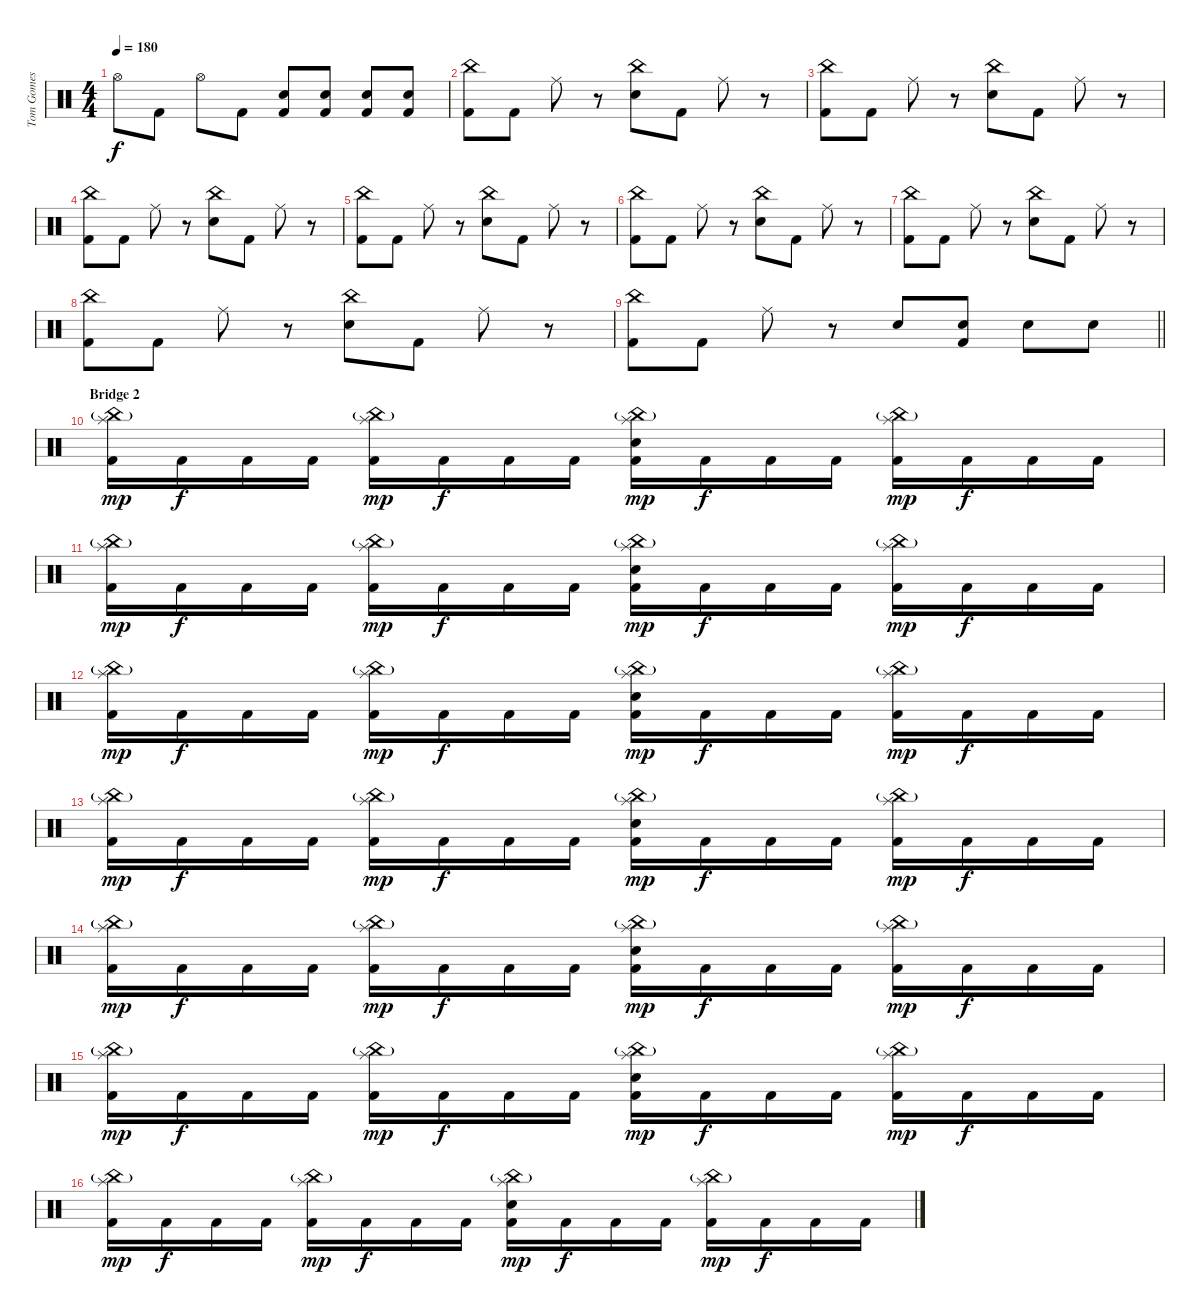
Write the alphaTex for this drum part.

\track ("Tom Gomes" "Tom Gomes") {instrument percussion}
\staff {score}
\articulation defaults
\ts (4 4)
\tempo 180
\clef neutral
\ks c "Hi-Hat (open)".8{dy f} "Kick (hit) 2".8 "Hi-Hat (open)".8 "Kick (hit) 2".8
("Snare (hit) 2" "Kick (hit) 2").8 ("Snare (hit) 2" "Kick (hit) 2").8 ("Snare (hit) 2" "Kick (hit) 2").8 ("Snare (hit) 2" "Kick (hit) 2").8 |
("China (hit)" "Kick (hit) 2").8 "Kick (hit) 2".8 "Ride (middle)".8 r.8 ("China (hit)" "Snare (hit) 2").8 "Kick (hit) 2".8 "Ride (middle)".8 r.8 |
("China (hit)" "Kick (hit) 2").8 "Kick (hit) 2".8 "Ride (middle)".8 r.8 ("China (hit)" "Snare (hit) 2").8 "Kick (hit) 2".8 "Ride (middle)".8 r.8 |
("China (hit)" "Kick (hit) 2").8 "Kick (hit) 2".8 "Ride (middle)".8 r.8 ("China (hit)" "Snare (hit) 2").8 "Kick (hit) 2".8 "Ride (middle)".8 r.8 |
("China (hit)" "Kick (hit) 2").8 "Kick (hit) 2".8 "Ride (middle)".8 r.8 ("China (hit)" "Snare (hit) 2").8 "Kick (hit) 2".8 "Ride (middle)".8 r.8 |
("China (hit)" "Kick (hit) 2").8 "Kick (hit) 2".8 "Ride (middle)".8 r.8 ("China (hit)" "Snare (hit) 2").8 "Kick (hit) 2".8 "Ride (middle)".8 r.8 |
("China (hit)" "Kick (hit) 2").8 "Kick (hit) 2".8 "Ride (middle)".8 r.8 ("China (hit)" "Snare (hit) 2").8 "Kick (hit) 2".8 "Ride (middle)".8 r.8 |
("China (hit)" "Kick (hit) 2").8 "Kick (hit) 2".8 "Ride (middle)".8 r.8 ("China (hit)" "Snare (hit) 2").8 "Kick (hit) 2".8 "Ride (middle)".8 r.8 |
\barLineRight lightlight
("China (hit)" "Kick (hit) 2").8 "Kick (hit) 2".8 "Ride (middle)".8 r.8 "Snare (hit) 2".8 ("Snare (hit) 2" "Kick (hit) 2").8 "Snare (hit) 2".8 "Snare (hit) 2".8 |
\section ("" "Bridge 2")
("Splash (hit)" "China (hit)"{g} "Kick (hit) 2").16{dy mp} "Kick (hit) 2".16{dy f} "Kick (hit) 2".16 "Kick (hit) 2".16 ("Splash (hit)" "China (hit)"{g} "Kick (hit) 2").16{dy mp} "Kick (hit) 2".16{dy f} "Kick (hit) 2".16 "Kick (hit) 2".16 ("Splash (hit)" "China (hit)"{g} "Snare (hit) 2" "Kick (hit) 2").16{dy mp} "Kick (hit) 2".16{dy f} "Kick (hit) 2".16 "Kick (hit) 2".16 ("Splash (hit)" "China (hit)"{g} "Kick (hit) 2").16{dy mp} "Kick (hit) 2".16{dy f} "Kick (hit) 2".16 "Kick (hit) 2".16 |
("Splash (hit)" "China (hit)"{g} "Kick (hit) 2").16{dy mp} "Kick (hit) 2".16{dy f} "Kick (hit) 2".16 "Kick (hit) 2".16 ("Splash (hit)" "China (hit)"{g} "Kick (hit) 2").16{dy mp} "Kick (hit) 2".16{dy f} "Kick (hit) 2".16 "Kick (hit) 2".16 ("Splash (hit)" "China (hit)"{g} "Snare (hit) 2" "Kick (hit) 2").16{dy mp} "Kick (hit) 2".16{dy f} "Kick (hit) 2".16 "Kick (hit) 2".16 ("Splash (hit)" "China (hit)"{g} "Kick (hit) 2").16{dy mp} "Kick (hit) 2".16{dy f} "Kick (hit) 2".16 "Kick (hit) 2".16 |
("Splash (hit)" "China (hit)"{g} "Kick (hit) 2").16{dy mp} "Kick (hit) 2".16{dy f} "Kick (hit) 2".16 "Kick (hit) 2".16 ("Splash (hit)" "China (hit)"{g} "Kick (hit) 2").16{dy mp} "Kick (hit) 2".16{dy f} "Kick (hit) 2".16 "Kick (hit) 2".16 ("Splash (hit)" "China (hit)"{g} "Snare (hit) 2" "Kick (hit) 2").16{dy mp} "Kick (hit) 2".16{dy f} "Kick (hit) 2".16 "Kick (hit) 2".16 ("Splash (hit)" "China (hit)"{g} "Kick (hit) 2").16{dy mp} "Kick (hit) 2".16{dy f} "Kick (hit) 2".16 "Kick (hit) 2".16 |
("Splash (hit)" "China (hit)"{g} "Kick (hit) 2").16{dy mp} "Kick (hit) 2".16{dy f} "Kick (hit) 2".16 "Kick (hit) 2".16 ("Splash (hit)" "China (hit)"{g} "Kick (hit) 2").16{dy mp} "Kick (hit) 2".16{dy f} "Kick (hit) 2".16 "Kick (hit) 2".16 ("Splash (hit)" "China (hit)"{g} "Snare (hit) 2" "Kick (hit) 2").16{dy mp} "Kick (hit) 2".16{dy f} "Kick (hit) 2".16 "Kick (hit) 2".16 ("Splash (hit)" "China (hit)"{g} "Kick (hit) 2").16{dy mp} "Kick (hit) 2".16{dy f} "Kick (hit) 2".16 "Kick (hit) 2".16 |
("Splash (hit)" "China (hit)"{g} "Kick (hit) 2").16{dy mp} "Kick (hit) 2".16{dy f} "Kick (hit) 2".16 "Kick (hit) 2".16 ("Splash (hit)" "China (hit)"{g} "Kick (hit) 2").16{dy mp} "Kick (hit) 2".16{dy f} "Kick (hit) 2".16 "Kick (hit) 2".16 ("Splash (hit)" "China (hit)"{g} "Snare (hit) 2" "Kick (hit) 2").16{dy mp} "Kick (hit) 2".16{dy f} "Kick (hit) 2".16 "Kick (hit) 2".16 ("Splash (hit)" "China (hit)"{g} "Kick (hit) 2").16{dy mp} "Kick (hit) 2".16{dy f} "Kick (hit) 2".16 "Kick (hit) 2".16 |
("Splash (hit)" "China (hit)"{g} "Kick (hit) 2").16{dy mp} "Kick (hit) 2".16{dy f} "Kick (hit) 2".16 "Kick (hit) 2".16 ("Splash (hit)" "China (hit)"{g} "Kick (hit) 2").16{dy mp} "Kick (hit) 2".16{dy f} "Kick (hit) 2".16 "Kick (hit) 2".16 ("Splash (hit)" "China (hit)"{g} "Snare (hit) 2" "Kick (hit) 2").16{dy mp} "Kick (hit) 2".16{dy f} "Kick (hit) 2".16 "Kick (hit) 2".16 ("Splash (hit)" "China (hit)"{g} "Kick (hit) 2").16{dy mp} "Kick (hit) 2".16{dy f} "Kick (hit) 2".16 "Kick (hit) 2".16 |
("Splash (hit)" "China (hit)"{g} "Kick (hit) 2").16{dy mp} "Kick (hit) 2".16{dy f} "Kick (hit) 2".16 "Kick (hit) 2".16 ("Splash (hit)" "China (hit)"{g} "Kick (hit) 2").16{dy mp} "Kick (hit) 2".16{dy f} "Kick (hit) 2".16 "Kick (hit) 2".16 ("Splash (hit)" "China (hit)"{g} "Snare (hit) 2" "Kick (hit) 2").16{dy mp} "Kick (hit) 2".16{dy f} "Kick (hit) 2".16 "Kick (hit) 2".16 ("Splash (hit)" "China (hit)"{g} "Kick (hit) 2").16{dy mp} "Kick (hit) 2".16{dy f} "Kick (hit) 2".16 "Kick (hit) 2".16
